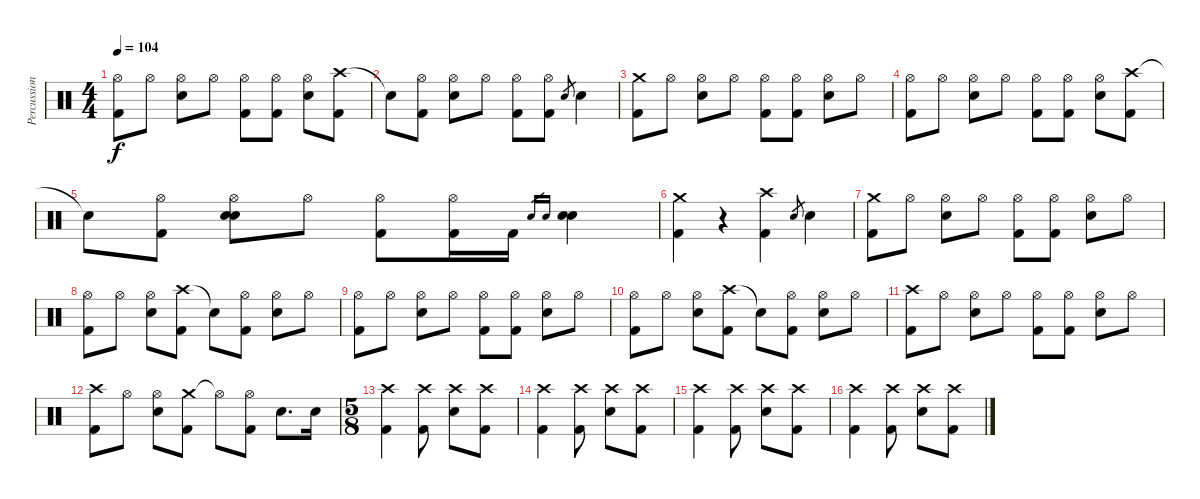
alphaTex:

\track ("Percussion" "Percussion") {instrument percussion}
\staff {score}
\articulation defaults
\ts (4 4)
\tempo 104
\clef neutral
\ks c
("Hi-Hat (open)" "Kick (hit) 2").8{dy f} "Hi-Hat (open)".8 ("Hi-Hat (open)" "Snare (hit) 2").8 "Hi-Hat (open)".8 ("Hi-Hat (open)" "Kick (hit) 2").8 ("Hi-Hat (open)" "Kick (hit) 2").8 ("Hi-Hat (open)" "Snare (hit) 2").8 ("Crash high (hit)" "Kick (hit) 2").8 |
"Snare (hit)"{t}.8 ("Hi-Hat (open)" "Kick (hit) 2").8 ("Hi-Hat (open)" "Snare (hit) 2").8 "Hi-Hat (open)".8 ("Hi-Hat (open)" "Kick (hit) 2").8 ("Hi-Hat (open)" "Kick (hit) 2").8 "Snare (hit) 2".8{gr} "Snare (hit) 2".4 |
("Crash medium (hit)" "Kick (hit) 2").8 "Hi-Hat (open)".8 ("Hi-Hat (open)" "Snare (hit) 2").8 "Hi-Hat (open)".8 ("Hi-Hat (open)" "Kick (hit) 2").8 ("Hi-Hat (open)" "Kick (hit) 2").8 ("Hi-Hat (open)" "Snare (hit) 2").8 "Hi-Hat (open)".8 |
("Hi-Hat (open)" "Kick (hit) 2").8 "Hi-Hat (open)".8 ("Hi-Hat (open)" "Snare (hit) 2").8 "Hi-Hat (open)".8 ("Hi-Hat (open)" "Kick (hit) 2").8 ("Hi-Hat (open)" "Kick (hit) 2").8 ("Hi-Hat (open)" "Snare (hit) 2").8 ("Crash high (hit)" "Kick (hit) 2").8 |
"Snare (hit)"{t}.8 ("Hi-Hat (open)" "Kick (hit) 2").8 ("Hi-Hat (open)" "Electric Snare (hit)" "Snare (hit) 2").8 "Hi-Hat (open)".8 ("Hi-Hat (open)" "Kick (hit) 2").8 ("Hi-Hat (open)" "Kick (hit) 2").16 "Kick (hit) 2".16 "Electric Snare (hit)".16{gr} "Snare (hit) 2".16{gr} ("Electric Snare (hit)" "Snare (hit) 2").4 |
("Crash medium (hit)" "Kick (hit) 2").4 r.4 ("Crash high (hit)" "Kick (hit) 2").4 "Snare (hit) 2".8{gr} "Snare (hit) 2".4 |
("Crash medium (hit)" "Kick (hit) 2").8 "Hi-Hat (open)".8 ("Hi-Hat (open)" "Snare (hit) 2").8 "Hi-Hat (open)".8 ("Hi-Hat (open)" "Kick (hit) 2").8 ("Hi-Hat (open)" "Kick (hit) 2").8 ("Hi-Hat (open)" "Snare (hit) 2").8 "Hi-Hat (open)".8 |
("Hi-Hat (open)" "Kick (hit) 2").8 "Hi-Hat (open)".8 ("Hi-Hat (open)" "Snare (hit) 2").8 ("Crash high (hit)" "Kick (hit) 2").8 "Snare (hit)"{t}.8 ("Hi-Hat (open)" "Kick (hit) 2").8 ("Hi-Hat (open)" "Snare (hit) 2").8 "Hi-Hat (open)".8 |
("Hi-Hat (open)" "Kick (hit) 2").8 "Hi-Hat (open)".8 ("Hi-Hat (open)" "Snare (hit) 2").8 "Hi-Hat (open)".8 ("Hi-Hat (open)" "Kick (hit) 2").8 ("Hi-Hat (open)" "Kick (hit) 2").8 ("Hi-Hat (open)" "Snare (hit) 2").8 "Hi-Hat (open)".8 |
("Hi-Hat (open)" "Kick (hit) 2").8 "Hi-Hat (open)".8 ("Hi-Hat (open)" "Snare (hit) 2").8 ("Crash high (hit)" "Kick (hit) 2").8 "Snare (hit)"{t}.8 ("Hi-Hat (open)" "Kick (hit) 2").8 ("Hi-Hat (open)" "Snare (hit) 2").8 "Hi-Hat (open)".8 |
("Crash high (hit)" "Kick (hit) 2").8 "Hi-Hat (open)".8 ("Hi-Hat (open)" "Snare (hit) 2").8 "Hi-Hat (open)".8 ("Hi-Hat (open)" "Kick (hit) 2").8 ("Hi-Hat (open)" "Kick (hit) 2").8 ("Hi-Hat (open)" "Snare (hit) 2").8 "Hi-Hat (open)".8 |
("Crash high (hit)" "Kick (hit) 2").8 "Hi-Hat (open)".8 ("Hi-Hat (open)" "Snare (hit) 2").8 ("Crash medium (hit)" "Kick (hit) 2").8 "Hi-Hat (open)"{t}.8 ("Hi-Hat (open)" "Kick (hit) 2").8 "Snare (hit) 2".8{d} "Snare (hit) 2".16 |
\ts (5 8)
("Crash high (hit)" "Kick (hit) 2").4 ("Crash high (hit)" "Kick (hit) 2").8 ("Crash high (hit)" "Snare (hit) 2").8 ("Crash high (hit)" "Kick (hit) 2").8 |
("Crash high (hit)" "Kick (hit) 2").4 ("Crash high (hit)" "Kick (hit) 2").8 ("Crash high (hit)" "Snare (hit) 2").8 ("Crash high (hit)" "Kick (hit) 2").8 |
("Crash high (hit)" "Kick (hit) 2").4 ("Crash high (hit)" "Kick (hit) 2").8 ("Crash high (hit)" "Snare (hit) 2").8 ("Crash high (hit)" "Kick (hit) 2").8 |
("Crash high (hit)" "Kick (hit) 2").4 ("Crash high (hit)" "Kick (hit) 2").8 ("Crash high (hit)" "Snare (hit) 2").8 ("Crash high (hit)" "Kick (hit) 2").8
